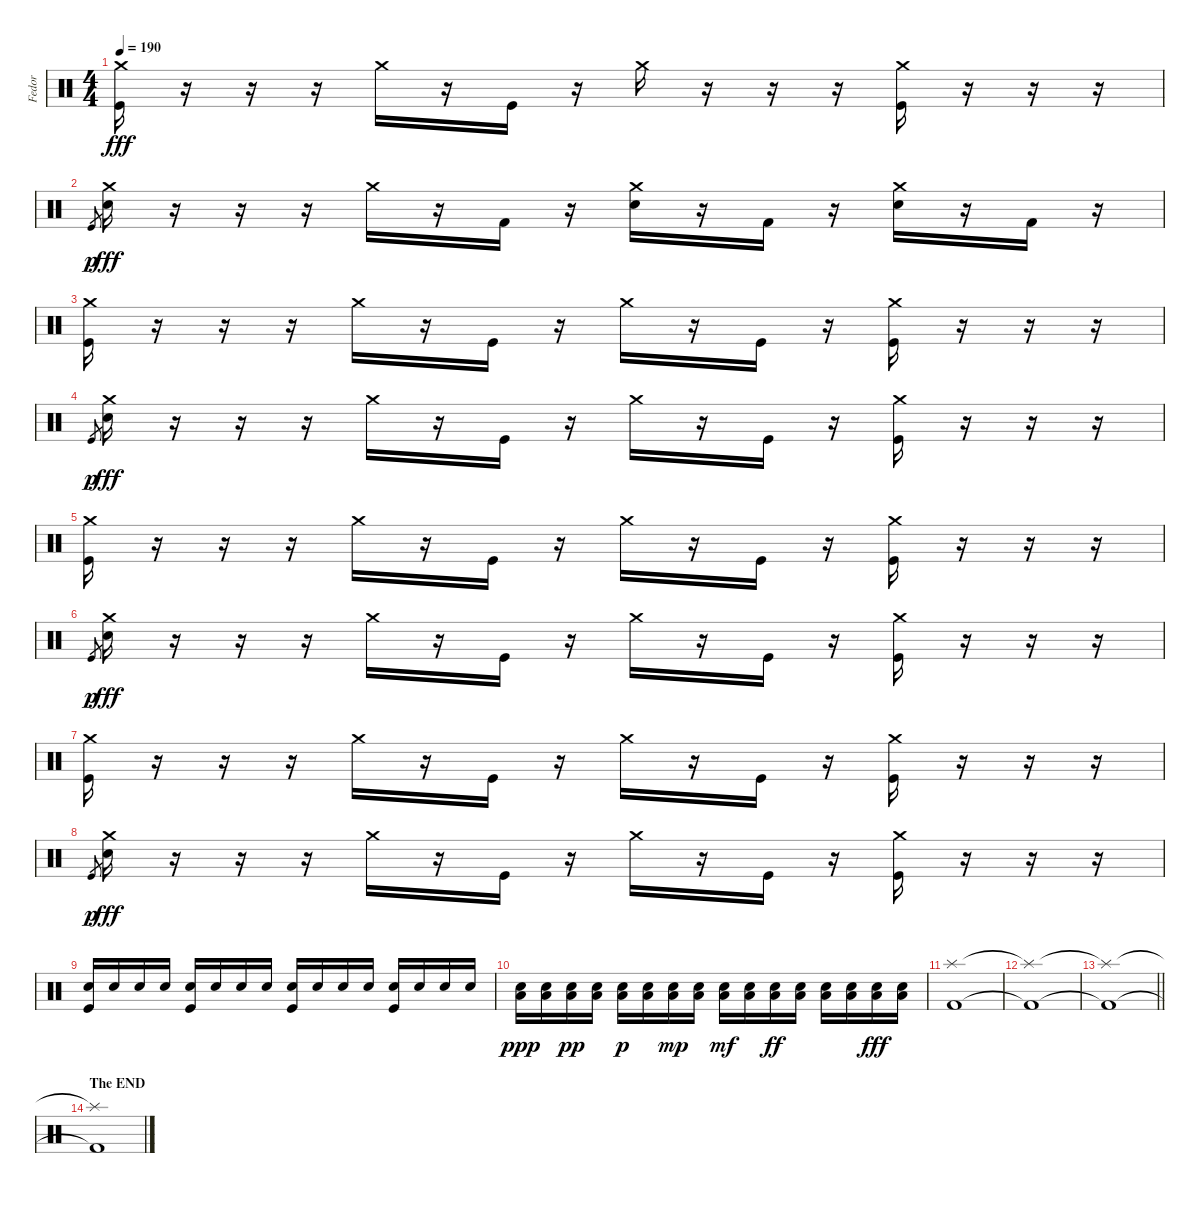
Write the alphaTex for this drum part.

\track ("Fedor" "Fedor") {instrument percussion}
\staff {score}
\articulation defaults
\ts (4 4)
\tempo 190
\clef neutral
\ks c
("Crash medium (hit)" "Kick (hit)").16{dy fff} r.16 r.16 r.16 "Crash medium (hit)".16 r.16 "Kick (hit)".16 r.16 "Crash medium (hit)".16 r.16 r.16 r.16 ("Crash medium (hit)" "Kick (hit)").16 r.16 r.16 r.16 |
"Kick (hit)".8{gr dy p} ("Crash medium (hit)" "Electric Snare (hit)").16{dy fff} r.16 r.16 r.16 "Crash medium (hit)".16 r.16 "Kick (hit) 2".16 r.16 ("Crash medium (hit)" "Electric Snare (hit)").16 r.16 "Kick (hit) 2".16 r.16 ("Crash medium (hit)" "Electric Snare (hit)").16 r.16 "Kick (hit) 2".16 r.16 |
("Crash medium (hit)" "Kick (hit)").16 r.16 r.16 r.16 "Crash medium (hit)".16 r.16 "Kick (hit)".16 r.16 "Crash medium (hit)".16 r.16 "Kick (hit)".16 r.16 ("Crash medium (hit)" "Kick (hit)").16 r.16 r.16 r.16 |
"Kick (hit)".8{gr dy p} ("Crash medium (hit)" "Electric Snare (hit)").16{dy fff} r.16 r.16 r.16 "Crash medium (hit)".16 r.16 "Kick (hit)".16 r.16 "Crash medium (hit)".16 r.16 "Kick (hit)".16 r.16 ("Crash medium (hit)" "Kick (hit)").16 r.16 r.16 r.16 |
("Crash medium (hit)" "Kick (hit)").16 r.16 r.16 r.16 "Crash medium (hit)".16 r.16 "Kick (hit)".16 r.16 "Crash medium (hit)".16 r.16 "Kick (hit)".16 r.16 ("Crash medium (hit)" "Kick (hit)").16 r.16 r.16 r.16 |
"Kick (hit)".8{gr dy p} ("Crash medium (hit)" "Electric Snare (hit)").16{dy fff} r.16 r.16 r.16 "Crash medium (hit)".16 r.16 "Kick (hit)".16 r.16 "Crash medium (hit)".16 r.16 "Kick (hit)".16 r.16 ("Crash medium (hit)" "Kick (hit)").16 r.16 r.16 r.16 |
("Crash medium (hit)" "Kick (hit)").16 r.16 r.16 r.16 "Crash medium (hit)".16 r.16 "Kick (hit)".16 r.16 "Crash medium (hit)".16 r.16 "Kick (hit)".16 r.16 ("Crash medium (hit)" "Kick (hit)").16 r.16 r.16 r.16 |
"Kick (hit)".8{gr dy p} ("Crash medium (hit)" "Electric Snare (hit)").16{dy fff} r.16 r.16 r.16 "Crash medium (hit)".16 r.16 "Kick (hit)".16 r.16 "Crash medium (hit)".16 r.16 "Kick (hit)".16 r.16 ("Crash medium (hit)" "Kick (hit)").16 r.16 r.16 r.16 |
("Electric Snare (hit)" "Kick (hit)").16 "Electric Snare (hit)".16 "Electric Snare (hit)".16 "Electric Snare (hit)".16 ("Electric Snare (hit)" "Kick (hit)").16 "Electric Snare (hit)".16 "Electric Snare (hit)".16 "Electric Snare (hit)".16 ("Electric Snare (hit)" "Kick (hit)").16 "Electric Snare (hit)".16 "Electric Snare (hit)".16 "Electric Snare (hit)".16 ("Electric Snare (hit)" "Kick (hit)").16 "Electric Snare (hit)".16 "Electric Snare (hit)".16 "Electric Snare (hit)".16 |
("Electric Snare (hit)" "Low Tom (hit)").16{dy ppp} ("Electric Snare (hit)" "Low Tom (hit)").16 ("Electric Snare (hit)" "Low Tom (hit)").16{dy pp} ("Electric Snare (hit)" "Low Tom (hit)").16 ("Electric Snare (hit)" "Low Tom (hit)").16{dy p} ("Electric Snare (hit)" "Low Tom (hit)").16 ("Electric Snare (hit)" "Low Tom (hit)").16{dy mp} ("Electric Snare (hit)" "Low Tom (hit)").16 ("Electric Snare (hit)" "Low Floor Tom (hit)").16{dy mf} ("Electric Snare (hit)" "Low Floor Tom (hit)").16 ("Electric Snare (hit)" "Low Floor Tom (hit)").16{dy ff} ("Electric Snare (hit)" "Low Floor Tom (hit)").16 ("Electric Snare (hit)" "Low Floor Tom (hit)").16 ("Electric Snare (hit)" "Low Floor Tom (hit)").16 ("Electric Snare (hit)" "Low Floor Tom (hit)").16{dy fff} ("Electric Snare (hit)" "Low Floor Tom (hit)").16 |
("Splash (hit)" "Kick (hit) 2").1 |
("Splash (hit)"{t} "Kick (hit) 2"{t}).1 |
\barLineRight lightlight
("Splash (hit)"{t} "Kick (hit) 2"{t}).1 |
\section ("" "The END")
("Splash (hit)"{t} "Kick (hit) 2"{t}).1
